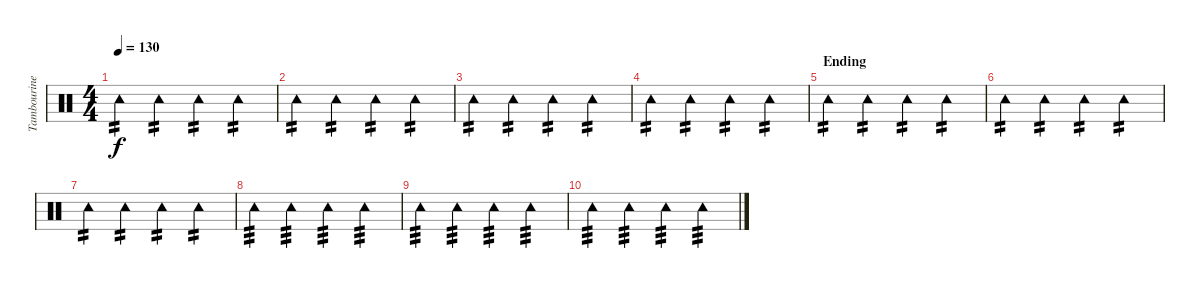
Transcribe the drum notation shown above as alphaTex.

\track ("Tambourine" "Tambourine") {instrument percussion}
\staff {score}
\articulation defaults
\ts (4 4)
\tempo 130
\clef neutral
\ks c "Tambourine (hit)".4{tp 2 dy f} "Tambourine (hit)".4{tp 2} "Tambourine (hit)".4{tp 2} "Tambourine (hit)".4{tp 2}
|
"Tambourine (hit)".4{tp 2} "Tambourine (hit)".4{tp 2} "Tambourine (hit)".4{tp 2} "Tambourine (hit)".4{tp 2} |
"Tambourine (hit)".4{tp 2} "Tambourine (hit)".4{tp 2} "Tambourine (hit)".4{tp 2} "Tambourine (hit)".4{tp 2} |
"Tambourine (hit)".4{tp 2} "Tambourine (hit)".4{tp 2} "Tambourine (hit)".4{tp 2} "Tambourine (hit)".4{tp 2} |
\section ("" "Ending")
"Tambourine (hit)".4{tp 2} "Tambourine (hit)".4{tp 2} "Tambourine (hit)".4{tp 2} "Tambourine (hit)".4{tp 2} |
"Tambourine (hit)".4{tp 2} "Tambourine (hit)".4{tp 2} "Tambourine (hit)".4{tp 2} "Tambourine (hit)".4{tp 2} |
"Tambourine (hit)".4{tp 2} "Tambourine (hit)".4{tp 2} "Tambourine (hit)".4{tp 2} "Tambourine (hit)".4{tp 2} |
"Tambourine (hit)".4{tp 3 volume 0} "Tambourine (hit)".4{tp 3} "Tambourine (hit)".4{tp 3} "Tambourine (hit)".4{tp 3} |
"Tambourine (hit)".4{tp 3} "Tambourine (hit)".4{tp 3} "Tambourine (hit)".4{tp 3} "Tambourine (hit)".4{tp 3} |
"Tambourine (hit)".4{tp 3} "Tambourine (hit)".4{tp 3} "Tambourine (hit)".4{tp 3} "Tambourine (hit)".4{tp 3}
